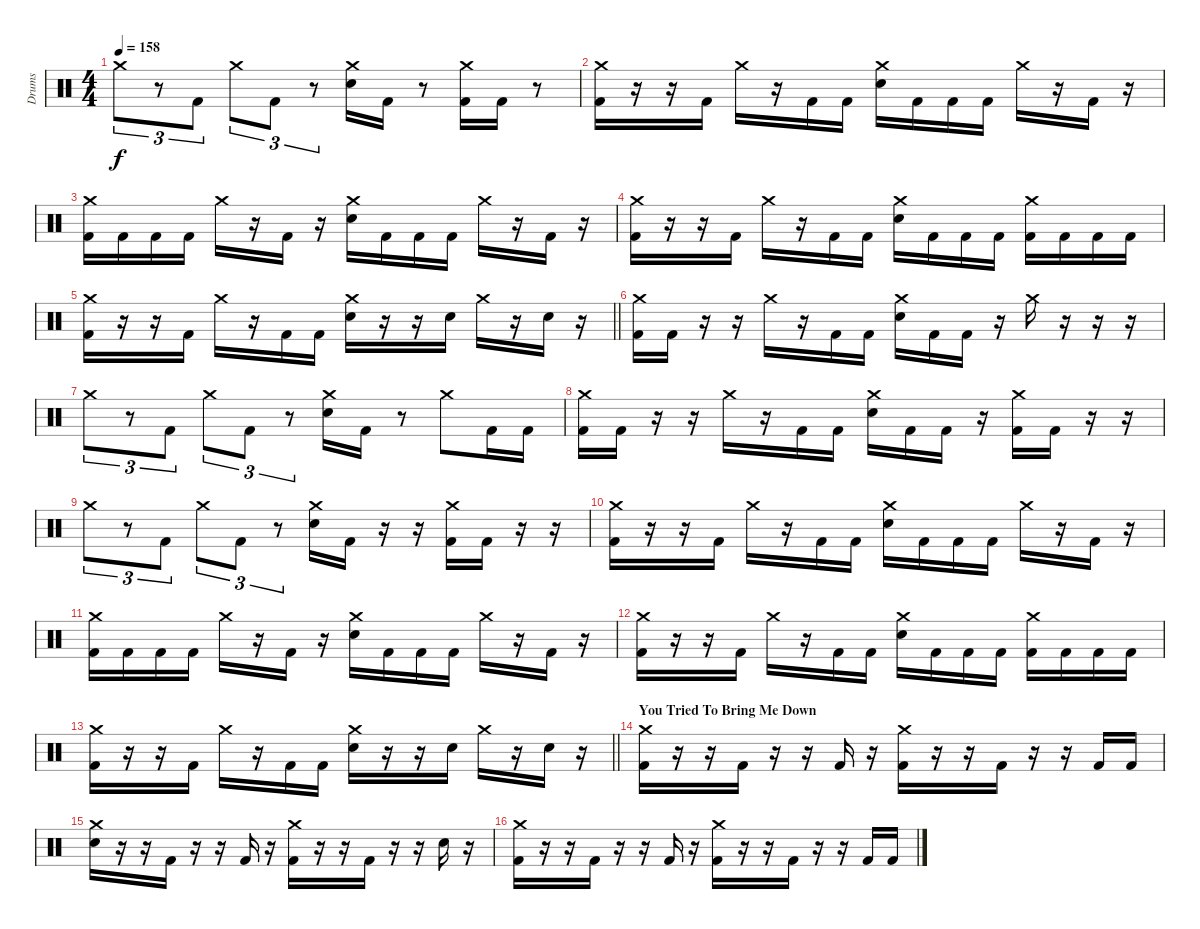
\track ("Drums" "Drums") {instrument percussion}
\staff {score}
\articulation defaults
\ts (4 4)
\tempo 158
\clef neutral
\ks c "Crash medium (hit)".8{tu (3 2) dy f}
r.8{tu (3 2)} "Kick (hit) 2".8{tu (3 2)} "Crash medium (hit)".8{tu (3 2)} "Kick (hit) 2".8{tu (3 2)} r.8{tu (3 2)} ("Crash medium (hit)" "Electric Snare (hit)").16 "Kick (hit) 2".16 r.8 ("Crash medium (hit)" "Kick (hit) 2").16 "Kick (hit) 2".16 r.8 |
("Crash medium (hit)" "Kick (hit) 2").16 r.16 r.16 "Kick (hit) 2".16 "Crash medium (hit)".16 r.16 "Kick (hit) 2".16 "Kick (hit) 2".16 ("Crash medium (hit)" "Electric Snare (hit)").16 "Kick (hit) 2".16 "Kick (hit) 2".16 "Kick (hit) 2".16 "Crash medium (hit)".16 r.16 "Kick (hit) 2".16 r.16 |
("Crash medium (hit)" "Kick (hit) 2").16 "Kick (hit) 2".16 "Kick (hit) 2".16 "Kick (hit) 2".16 "Crash medium (hit)".16 r.16 "Kick (hit) 2".16 r.16 ("Crash medium (hit)" "Electric Snare (hit)").16 "Kick (hit) 2".16 "Kick (hit) 2".16 "Kick (hit) 2".16 "Crash medium (hit)".16 r.16 "Kick (hit) 2".16 r.16 |
("Crash medium (hit)" "Kick (hit) 2").16 r.16 r.16 "Kick (hit) 2".16 "Crash medium (hit)".16 r.16 "Kick (hit) 2".16 "Kick (hit) 2".16 ("Crash medium (hit)" "Electric Snare (hit)").16 "Kick (hit) 2".16 "Kick (hit) 2".16 "Kick (hit) 2".16 ("Crash medium (hit)" "Kick (hit) 2").16 "Kick (hit) 2".16 "Kick (hit) 2".16 "Kick (hit) 2".16 |
\barLineRight lightlight
("Crash medium (hit)" "Kick (hit) 2").16 r.16 r.16 "Kick (hit) 2".16 "Crash medium (hit)".16 r.16 "Kick (hit) 2".16 "Kick (hit) 2".16 ("Crash medium (hit)" "Electric Snare (hit)").16 r.16 r.16 "Electric Snare (hit)".16 "Crash medium (hit)".16 r.16 "Electric Snare (hit)".16 r.16 |
("Crash medium (hit)" "Kick (hit) 2").16 "Kick (hit) 2".16 r.16 r.16 "Crash medium (hit)".16 r.16 "Kick (hit) 2".16 "Kick (hit) 2".16 ("Crash medium (hit)" "Electric Snare (hit)").16 "Kick (hit) 2".16 "Kick (hit) 2".16 r.16 "Crash medium (hit)".16 r.16 r.16 r.16 |
"Crash medium (hit)".8{tu (3 2)} r.8{tu (3 2)} "Kick (hit) 2".8{tu (3 2)} "Crash medium (hit)".8{tu (3 2)} "Kick (hit) 2".8{tu (3 2)} r.8{tu (3 2)} ("Crash medium (hit)" "Electric Snare (hit)").16 "Kick (hit) 2".16 r.8 "Crash medium (hit)".8 "Kick (hit) 2".16 "Kick (hit) 2".16 |
("Crash medium (hit)" "Kick (hit) 2").16 "Kick (hit) 2".16 r.16 r.16 "Crash medium (hit)".16 r.16 "Kick (hit) 2".16 "Kick (hit) 2".16 ("Crash medium (hit)" "Electric Snare (hit)").16 "Kick (hit) 2".16 "Kick (hit) 2".16 r.16 ("Crash medium (hit)" "Kick (hit) 2").16 "Kick (hit) 2".16 r.16 r.16 |
"Crash medium (hit)".8{tu (3 2)} r.8{tu (3 2)} "Kick (hit) 2".8{tu (3 2)} "Crash medium (hit)".8{tu (3 2)} "Kick (hit) 2".8{tu (3 2)} r.8{tu (3 2)} ("Crash medium (hit)" "Electric Snare (hit)").16 "Kick (hit) 2".16 r.16 r.16 ("Crash medium (hit)" "Kick (hit) 2").16 "Kick (hit) 2".16 r.16 r.16 |
("Crash medium (hit)" "Kick (hit) 2").16 r.16 r.16 "Kick (hit) 2".16 "Crash medium (hit)".16 r.16 "Kick (hit) 2".16 "Kick (hit) 2".16 ("Crash medium (hit)" "Electric Snare (hit)").16 "Kick (hit) 2".16 "Kick (hit) 2".16 "Kick (hit) 2".16 "Crash medium (hit)".16 r.16 "Kick (hit) 2".16 r.16 |
("Crash medium (hit)" "Kick (hit) 2").16 "Kick (hit) 2".16 "Kick (hit) 2".16 "Kick (hit) 2".16 "Crash medium (hit)".16 r.16 "Kick (hit) 2".16 r.16 ("Crash medium (hit)" "Electric Snare (hit)").16 "Kick (hit) 2".16 "Kick (hit) 2".16 "Kick (hit) 2".16 "Crash medium (hit)".16 r.16 "Kick (hit) 2".16 r.16 |
("Crash medium (hit)" "Kick (hit) 2").16 r.16 r.16 "Kick (hit) 2".16 "Crash medium (hit)".16 r.16 "Kick (hit) 2".16 "Kick (hit) 2".16 ("Crash medium (hit)" "Electric Snare (hit)").16 "Kick (hit) 2".16 "Kick (hit) 2".16 "Kick (hit) 2".16 ("Crash medium (hit)" "Kick (hit) 2").16 "Kick (hit) 2".16 "Kick (hit) 2".16 "Kick (hit) 2".16 |
\barLineRight lightlight
("Crash medium (hit)" "Kick (hit) 2").16 r.16 r.16 "Kick (hit) 2".16 "Crash medium (hit)".16 r.16 "Kick (hit) 2".16 "Kick (hit) 2".16 ("Crash medium (hit)" "Electric Snare (hit)").16 r.16 r.16 "Electric Snare (hit)".16 "Crash medium (hit)".16 r.16 "Electric Snare (hit)".16 r.16 |
\section ("" "You Tried To Bring Me Down")
("Crash medium (hit)" "Kick (hit) 2").16 r.16 r.16 "Kick (hit) 2".16 r.16 r.16 "Kick (hit) 2".16 r.16 ("Crash medium (hit)" "Kick (hit) 2").16 r.16 r.16 "Kick (hit) 2".16 r.16 r.16 "Kick (hit) 2".16 "Kick (hit) 2".16 |
("Crash medium (hit)" "Electric Snare (hit)").16 r.16 r.16 "Kick (hit) 2".16 r.16 r.16 "Kick (hit) 2".16 r.16 ("Crash medium (hit)" "Kick (hit) 2").16 r.16 r.16 "Kick (hit) 2".16 r.16 r.16 "Electric Snare (hit)".16 r.16 |
("Crash medium (hit)" "Kick (hit) 2").16 r.16 r.16 "Kick (hit) 2".16 r.16 r.16 "Kick (hit) 2".16 r.16 ("Crash medium (hit)" "Kick (hit) 2").16 r.16 r.16 "Kick (hit) 2".16 r.16 r.16 "Kick (hit) 2".16 "Kick (hit) 2".16
